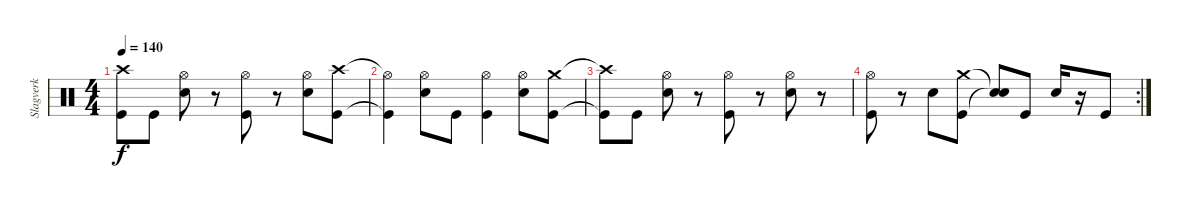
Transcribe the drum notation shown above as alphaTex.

\track ("Slagverk" "Slagverk") {instrument percussion}
\staff {score}
\articulation defaults
\ts (4 4)
\tempo 140
\clef neutral
\ks c
("Crash high (hit)"{t} "Kick (hit)"{t}).8{dy f} "Kick (hit)".8 ("Hi-Hat (open)" "Electric Snare (hit)").8 r.8 ("Hi-Hat (open)" "Kick (hit)").8 r.8 ("Hi-Hat (open)" "Electric Snare (hit)").8 ("Crash high (hit)" "Kick (hit)").8 |
("Hi-Hat (open)"{t} "Kick (hit)"{t}).4 ("Hi-Hat (open)" "Electric Snare (hit)").8 "Kick (hit)".8 ("Hi-Hat (open)" "Kick (hit)").4 ("Hi-Hat (open)" "Electric Snare (hit)").8 ("Crash medium (hit)" "Kick (hit)").8 |
("Crash high (hit)"{t} "Kick (hit)"{t}).8 "Kick (hit)".8 ("Hi-Hat (open)" "Electric Snare (hit)").8 r.8 ("Hi-Hat (open)" "Kick (hit)").8 r.8 ("Hi-Hat (open)" "Electric Snare (hit)").8 r.8 |
\rc 2
("Hi-Hat (open)" "Kick (hit)").8 r.8 "Electric Snare (hit)".8 ("Crash medium (hit)" "Kick (hit)").8 ("Snare (hit)"{t} "Snare (hit)"{t}).8 "Kick (hit)".8 "Electric Snare (hit)".16 r.16 "Kick (hit)".8
